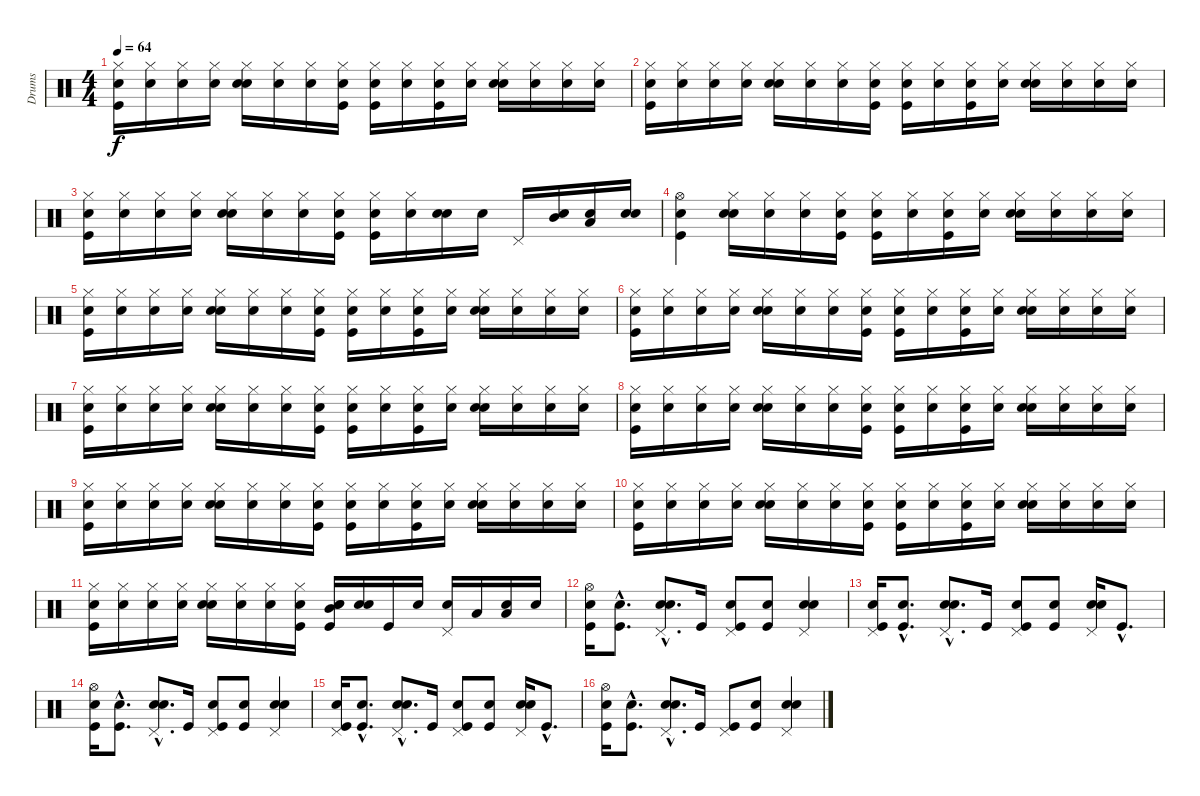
\track ("Drums" "Drums") {instrument percussion}
\staff {score}
\articulation defaults
\ts (4 4)
\tempo 64
\clef neutral
\ks c
("Snare (hit)" "Kick (hit)" "Hi-Hat (closed)").16{dy f} ("Snare (hit)" "Hi-Hat (closed)").16 ("Snare (hit)" "Hi-Hat (closed)").16 ("Snare (hit)" "Hi-Hat (closed)").16 ("Snare (hit)" "Snare (hit) 2" "Hi-Hat (closed)").16 ("Snare (hit)" "Hi-Hat (closed)").16 ("Snare (hit)" "Hi-Hat (closed)").16 ("Snare (hit)" "Kick (hit)" "Hi-Hat (closed)").16 ("Snare (hit)" "Kick (hit)" "Hi-Hat (closed)").16 ("Snare (hit)" "Hi-Hat (closed)").16 ("Snare (hit)" "Kick (hit)" "Hi-Hat (closed)").16 ("Snare (hit)" "Hi-Hat (closed)").16 ("Snare (hit)" "Snare (hit) 2" "Hi-Hat (closed)").16 ("Snare (hit)" "Hi-Hat (closed)").16 ("Snare (hit)" "Hi-Hat (closed)").16 ("Snare (hit)" "Hi-Hat (closed)").16 |
("Snare (hit)" "Kick (hit)" "Hi-Hat (closed)").16 ("Snare (hit)" "Hi-Hat (closed)").16 ("Snare (hit)" "Hi-Hat (closed)").16 ("Snare (hit)" "Hi-Hat (closed)").16 ("Snare (hit)" "Snare (hit) 2" "Hi-Hat (closed)").16 ("Snare (hit)" "Hi-Hat (closed)").16 ("Snare (hit)" "Hi-Hat (closed)").16 ("Snare (hit)" "Kick (hit)" "Hi-Hat (closed)").16 ("Snare (hit)" "Kick (hit)" "Hi-Hat (closed)").16 ("Snare (hit)" "Hi-Hat (closed)").16 ("Snare (hit)" "Kick (hit)" "Hi-Hat (closed)").16 ("Snare (hit)" "Hi-Hat (closed)").16 ("Snare (hit)" "Snare (hit) 2" "Hi-Hat (closed)").16 ("Snare (hit)" "Hi-Hat (closed)").16 ("Snare (hit)" "Hi-Hat (closed)").16 ("Snare (hit)" "Hi-Hat (closed)").16 |
("Snare (hit)" "Kick (hit)" "Hi-Hat (closed)").16 ("Snare (hit)" "Hi-Hat (closed)").16 ("Snare (hit)" "Hi-Hat (closed)").16 ("Snare (hit)" "Hi-Hat (closed)").16 ("Snare (hit)" "Snare (hit) 2" "Hi-Hat (closed)").16 ("Snare (hit)" "Hi-Hat (closed)").16 ("Snare (hit)" "Hi-Hat (closed)").16 ("Snare (hit)" "Kick (hit)" "Hi-Hat (closed)").16 ("Snare (hit)" "Kick (hit)" "Hi-Hat (closed)").16 ("Snare (hit)" "Hi-Hat (closed)").16 ("Snare (hit)" "Snare (hit) 2").16 "Snare (hit) 2".16 "Pedal Hi-Hat (hit)".16 ("Snare (hit)" "Mid Tom (hit)").16 ("Snare (hit)" "Low Tom (hit)").16 ("Snare (hit)" "Electric Snare (hit)").16 |
("Snare (hit)" "Kick (hit)" "Hi-Hat (open)").4 ("Snare (hit)" "Snare (hit) 2" "Hi-Hat (closed)").16 ("Snare (hit)" "Hi-Hat (closed)").16 ("Snare (hit)" "Hi-Hat (closed)").16 ("Snare (hit)" "Kick (hit)" "Hi-Hat (closed)").16 ("Snare (hit)" "Kick (hit)" "Hi-Hat (closed)").16 ("Snare (hit)" "Hi-Hat (closed)").16 ("Snare (hit)" "Kick (hit)" "Hi-Hat (closed)").16 ("Snare (hit)" "Hi-Hat (closed)").16 ("Snare (hit)" "Snare (hit) 2" "Hi-Hat (closed)").16 ("Snare (hit)" "Hi-Hat (closed)").16 ("Snare (hit)" "Hi-Hat (closed)").16 ("Snare (hit)" "Hi-Hat (closed)").16 |
("Snare (hit)" "Kick (hit)" "Hi-Hat (closed)").16 ("Snare (hit)" "Hi-Hat (closed)").16 ("Snare (hit)" "Hi-Hat (closed)").16 ("Snare (hit)" "Hi-Hat (closed)").16 ("Snare (hit)" "Snare (hit) 2" "Hi-Hat (closed)").16 ("Snare (hit)" "Hi-Hat (closed)").16 ("Snare (hit)" "Hi-Hat (closed)").16 ("Snare (hit)" "Kick (hit)" "Hi-Hat (closed)").16 ("Snare (hit)" "Kick (hit)" "Hi-Hat (closed)").16 ("Snare (hit)" "Hi-Hat (closed)").16 ("Snare (hit)" "Kick (hit)" "Hi-Hat (closed)").16 ("Snare (hit)" "Hi-Hat (closed)").16 ("Snare (hit)" "Snare (hit) 2" "Hi-Hat (closed)").16 ("Snare (hit)" "Hi-Hat (closed)").16 ("Snare (hit)" "Hi-Hat (closed)").16 ("Snare (hit)" "Hi-Hat (closed)").16 |
("Snare (hit)" "Kick (hit)" "Hi-Hat (closed)").16 ("Snare (hit)" "Hi-Hat (closed)").16 ("Snare (hit)" "Hi-Hat (closed)").16 ("Snare (hit)" "Hi-Hat (closed)").16 ("Snare (hit)" "Snare (hit) 2" "Hi-Hat (closed)").16 ("Snare (hit)" "Hi-Hat (closed)").16 ("Snare (hit)" "Hi-Hat (closed)").16 ("Snare (hit)" "Kick (hit)" "Hi-Hat (closed)").16 ("Snare (hit)" "Kick (hit)" "Hi-Hat (closed)").16 ("Snare (hit)" "Hi-Hat (closed)").16 ("Snare (hit)" "Kick (hit)" "Hi-Hat (closed)").16 ("Snare (hit)" "Hi-Hat (closed)").16 ("Snare (hit)" "Snare (hit) 2" "Hi-Hat (closed)").16 ("Snare (hit)" "Hi-Hat (closed)").16 ("Snare (hit)" "Hi-Hat (closed)").16 ("Snare (hit)" "Hi-Hat (closed)").16 |
("Snare (hit)" "Kick (hit)" "Hi-Hat (closed)").16 ("Snare (hit)" "Hi-Hat (closed)").16 ("Snare (hit)" "Hi-Hat (closed)").16 ("Snare (hit)" "Hi-Hat (closed)").16 ("Snare (hit)" "Snare (hit) 2" "Hi-Hat (closed)").16 ("Snare (hit)" "Hi-Hat (closed)").16 ("Snare (hit)" "Hi-Hat (closed)").16 ("Snare (hit)" "Kick (hit)" "Hi-Hat (closed)").16 ("Snare (hit)" "Kick (hit)" "Hi-Hat (closed)").16 ("Snare (hit)" "Hi-Hat (closed)").16 ("Snare (hit)" "Kick (hit)" "Hi-Hat (closed)").16 ("Snare (hit)" "Hi-Hat (closed)").16 ("Snare (hit)" "Snare (hit) 2" "Hi-Hat (closed)").16 ("Snare (hit)" "Hi-Hat (closed)").16 ("Snare (hit)" "Hi-Hat (closed)").16 ("Snare (hit)" "Hi-Hat (closed)").16 |
("Snare (hit)" "Kick (hit)" "Hi-Hat (closed)").16 ("Snare (hit)" "Hi-Hat (closed)").16 ("Snare (hit)" "Hi-Hat (closed)").16 ("Snare (hit)" "Hi-Hat (closed)").16 ("Snare (hit)" "Snare (hit) 2" "Hi-Hat (closed)").16 ("Snare (hit)" "Hi-Hat (closed)").16 ("Snare (hit)" "Hi-Hat (closed)").16 ("Snare (hit)" "Kick (hit)" "Hi-Hat (closed)").16 ("Snare (hit)" "Kick (hit)" "Hi-Hat (closed)").16 ("Snare (hit)" "Hi-Hat (closed)").16 ("Snare (hit)" "Kick (hit)" "Hi-Hat (closed)").16 ("Snare (hit)" "Hi-Hat (closed)").16 ("Snare (hit)" "Snare (hit) 2" "Hi-Hat (closed)").16 ("Snare (hit)" "Hi-Hat (closed)").16 ("Snare (hit)" "Hi-Hat (closed)").16 ("Snare (hit)" "Hi-Hat (closed)").16 |
("Snare (hit)" "Kick (hit)" "Hi-Hat (closed)").16 ("Snare (hit)" "Hi-Hat (closed)").16 ("Snare (hit)" "Hi-Hat (closed)").16 ("Snare (hit)" "Hi-Hat (closed)").16 ("Snare (hit)" "Snare (hit) 2" "Hi-Hat (closed)").16 ("Snare (hit)" "Hi-Hat (closed)").16 ("Snare (hit)" "Hi-Hat (closed)").16 ("Snare (hit)" "Kick (hit)" "Hi-Hat (closed)").16 ("Snare (hit)" "Kick (hit)" "Hi-Hat (closed)").16 ("Snare (hit)" "Hi-Hat (closed)").16 ("Snare (hit)" "Kick (hit)" "Hi-Hat (closed)").16 ("Snare (hit)" "Hi-Hat (closed)").16 ("Snare (hit)" "Snare (hit) 2" "Hi-Hat (closed)").16 ("Snare (hit)" "Hi-Hat (closed)").16 ("Snare (hit)" "Hi-Hat (closed)").16 ("Snare (hit)" "Hi-Hat (closed)").16 |
("Snare (hit)" "Kick (hit)" "Hi-Hat (closed)").16 ("Snare (hit)" "Hi-Hat (closed)").16 ("Snare (hit)" "Hi-Hat (closed)").16 ("Snare (hit)" "Hi-Hat (closed)").16 ("Snare (hit)" "Snare (hit) 2" "Hi-Hat (closed)").16 ("Snare (hit)" "Hi-Hat (closed)").16 ("Snare (hit)" "Hi-Hat (closed)").16 ("Snare (hit)" "Kick (hit)" "Hi-Hat (closed)").16 ("Snare (hit)" "Kick (hit)" "Hi-Hat (closed)").16 ("Snare (hit)" "Hi-Hat (closed)").16 ("Snare (hit)" "Kick (hit)" "Hi-Hat (closed)").16 ("Snare (hit)" "Hi-Hat (closed)").16 ("Snare (hit)" "Snare (hit) 2" "Hi-Hat (closed)").16 ("Snare (hit)" "Hi-Hat (closed)").16 ("Snare (hit)" "Hi-Hat (closed)").16 ("Snare (hit)" "Hi-Hat (closed)").16 |
("Snare (hit)" "Kick (hit)" "Hi-Hat (closed)").16 ("Snare (hit)" "Hi-Hat (closed)").16 ("Snare (hit)" "Hi-Hat (closed)").16 ("Snare (hit)" "Hi-Hat (closed)").16 ("Snare (hit)" "Snare (hit) 2" "Hi-Hat (closed)").16 ("Snare (hit)" "Hi-Hat (closed)").16 ("Snare (hit)" "Hi-Hat (closed)").16 ("Snare (hit)" "Kick (hit)" "Hi-Hat (closed)").16 ("Snare (hit)" "Mid Tom (hit)" "Snare (hit) 2" "Kick (hit)").16 ("Electric Snare (hit)" "Snare (hit) 2").16 "Kick (hit)".16 "Electric Snare (hit)".16 ("Snare (hit)" "Pedal Hi-Hat (hit)").16 "Low Tom (hit)".16 ("Snare (hit)" "Low Floor Tom (hit)").16 "Snare (hit) 2".16 |
("Snare (hit)" "Kick (hit)" "Hi-Hat (open)").16 ("Snare (hit)"{hac} "Kick (hit)"{hac}).8{d} ("Snare (hit)"{hac} "Pedal Hi-Hat (hit)"{hac} "Snare (hit) 2"{hac}).8{d} "Kick (hit)".16 ("Snare (hit)" "Kick (hit)" "Pedal Hi-Hat (hit)").8 ("Snare (hit)" "Kick (hit)").8 ("Snare (hit)" "Pedal Hi-Hat (hit)" "Snare (hit) 2").4 |
("Snare (hit)" "Kick (hit)" "Pedal Hi-Hat (hit)").16 ("Snare (hit)"{hac} "Kick (hit)"{hac}).8{d} ("Snare (hit)"{hac} "Pedal Hi-Hat (hit)"{hac} "Snare (hit) 2"{hac}).8{d} "Kick (hit)".16 ("Snare (hit)" "Kick (hit)" "Pedal Hi-Hat (hit)").8 ("Snare (hit)" "Kick (hit)").8 ("Snare (hit)" "Pedal Hi-Hat (hit)" "Snare (hit) 2").16 "Kick (hit)"{hac}.8{d} |
("Snare (hit)" "Kick (hit)" "Hi-Hat (open)").16 ("Snare (hit)"{hac} "Kick (hit)"{hac}).8{d} ("Snare (hit)"{hac} "Pedal Hi-Hat (hit)"{hac} "Snare (hit) 2"{hac}).8{d} "Kick (hit)".16 ("Snare (hit)" "Kick (hit)" "Pedal Hi-Hat (hit)").8 ("Snare (hit)" "Kick (hit)").8 ("Snare (hit)" "Pedal Hi-Hat (hit)" "Snare (hit) 2").4 |
("Snare (hit)" "Kick (hit)" "Pedal Hi-Hat (hit)").16 ("Snare (hit)"{hac} "Kick (hit)"{hac}).8{d} ("Snare (hit)"{hac} "Pedal Hi-Hat (hit)"{hac} "Snare (hit) 2"{hac}).8{d} "Kick (hit)".16 ("Snare (hit)" "Kick (hit)" "Pedal Hi-Hat (hit)").8 ("Snare (hit)" "Kick (hit)").8 ("Snare (hit)" "Pedal Hi-Hat (hit)" "Snare (hit) 2").16 "Kick (hit)"{hac}.8{d} |
("Snare (hit)" "Kick (hit)" "Hi-Hat (open)").16 ("Snare (hit)"{hac} "Kick (hit)"{hac}).8{d} ("Snare (hit)"{hac} "Pedal Hi-Hat (hit)"{hac} "Snare (hit) 2"{hac}).8{d} "Kick (hit)".16 ("Kick (hit)" "Pedal Hi-Hat (hit)").8 ("Snare (hit)" "Kick (hit)").8 ("Snare (hit)" "Pedal Hi-Hat (hit)" "Snare (hit) 2").4
